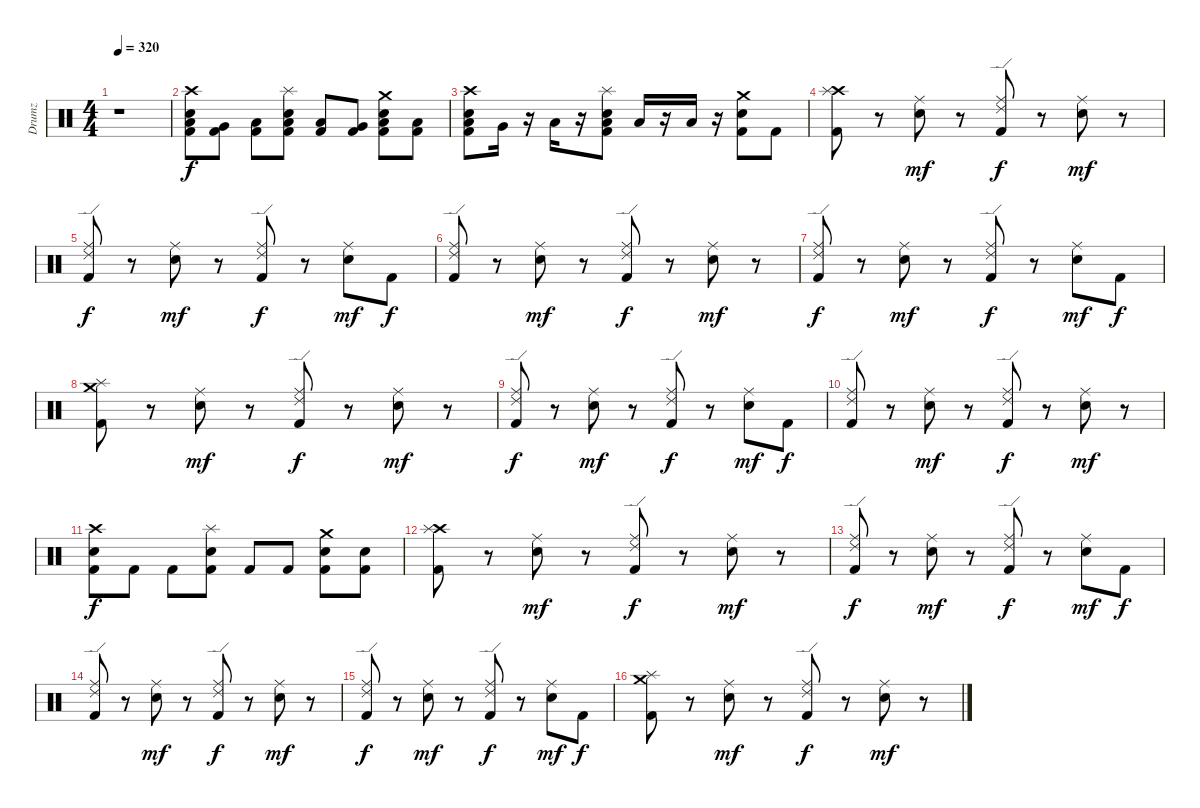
\track ("Drumz" "Drumz") {instrument percussion}
\staff {score}
\articulation defaults
\ts (4 4)
\tempo 320
\clef neutral
\ks c
r.1{dy f} |
("Crash high (hit)" "Kick (hit) 2" "Snare (hit) 2" "Low Tom (hit)").8 ("Very Low Tom (hit)" "Kick (hit) 2").8 ("Low Floor Tom (hit)" "Kick (hit) 2").8 ("Splash (hit)" "Kick (hit) 2" "Snare (hit) 2" "Low Floor Tom (hit)").8 ("Low Tom (hit)" "Kick (hit) 2").8 ("Very Low Tom (hit)" "Kick (hit) 2").8 ("Crash medium (hit)" "Kick (hit) 2" "Snare (hit) 2" "Low Floor Tom (hit)").8 ("Low Floor Tom (hit)" "Kick (hit) 2").8 |
("Low Tom (hit)" "Kick (hit) 2" "Snare (hit) 2" "Crash high (hit)").8 "Very Low Tom (hit)".16 r.16 "Low Floor Tom (hit)".16 r.16 ("Low Floor Tom (hit)" "Kick (hit) 2" "Snare (hit) 2" "Splash (hit)").8 "Low Floor Tom (hit)".16 r.16 "Low Floor Tom (hit)".16 r.16 ("Kick (hit) 2" "Snare (hit) 2" "Crash medium (hit)").8 "Kick (hit) 2".8 |
("Kick (hit) 2" "Crash high (hit)" "Splash (hit)").8 r.8 ("Snare (hit) 2" "Ride (middle)").8{dy mf} r.8 ("Ride (edge) 2" "Kick (hit) 2" "Ride (middle)").8{dy f} r.8 ("Snare (hit) 2" "Ride (middle)").8{dy mf} r.8 |
("Kick (hit) 2" "Ride (middle)" "Ride (edge) 2").8{dy f} r.8 ("Snare (hit) 2" "Ride (middle)").8{dy mf} r.8 ("Kick (hit) 2" "Ride (middle)" "Ride (edge) 2").8{dy f} r.8 ("Snare (hit) 2" "Ride (middle)").8{dy mf} "Kick (hit) 2".8{dy f} |
("Kick (hit) 2" "Ride (middle)" "Ride (edge) 2").8 r.8 ("Snare (hit) 2" "Ride (middle)").8{dy mf} r.8 ("Ride (edge) 2" "Kick (hit) 2" "Ride (middle)").8{dy f} r.8 ("Snare (hit) 2" "Ride (middle)").8{dy mf} r.8 |
("Kick (hit) 2" "Ride (middle)" "Ride (edge) 2").8{dy f} r.8 ("Snare (hit) 2" "Ride (middle)").8{dy mf} r.8 ("Kick (hit) 2" "Ride (middle)" "Ride (edge) 2").8{dy f} r.8 ("Snare (hit) 2" "Ride (middle)").8{dy mf} "Kick (hit) 2".8{dy f} |
("Crash medium (hit)" "Kick (hit) 2" "Splash (hit)").8 r.8 ("Snare (hit) 2" "Ride (middle)").8{dy mf} r.8 ("Ride (edge) 2" "Kick (hit) 2" "Ride (middle)").8{dy f} r.8 ("Snare (hit) 2" "Ride (middle)").8{dy mf} r.8 |
("Kick (hit) 2" "Ride (middle)" "Ride (edge) 2").8{dy f} r.8 ("Snare (hit) 2" "Ride (middle)").8{dy mf} r.8 ("Kick (hit) 2" "Ride (middle)" "Ride (edge) 2").8{dy f} r.8 ("Snare (hit) 2" "Ride (middle)").8{dy mf} "Kick (hit) 2".8{dy f} |
("Kick (hit) 2" "Ride (middle)" "Ride (edge) 2").8 r.8 ("Snare (hit) 2" "Ride (middle)").8{dy mf} r.8 ("Kick (hit) 2" "Ride (middle)" "Ride (edge) 2").8{dy f} r.8 ("Snare (hit) 2" "Ride (middle)").8{dy mf} r.8 |
("Snare (hit) 2" "Kick (hit) 2" "Crash high (hit)").8{dy f} "Kick (hit) 2".8 "Kick (hit) 2".8 ("Kick (hit) 2" "Snare (hit) 2" "Splash (hit)").8 "Kick (hit) 2".8 "Kick (hit) 2".8 ("Snare (hit) 2" "Kick (hit) 2" "Crash medium (hit)").8 ("Snare (hit) 2" "Kick (hit) 2").8 |
("Kick (hit) 2" "Crash high (hit)" "Splash (hit)").8 r.8 ("Snare (hit) 2" "Ride (middle)").8{dy mf} r.8 ("Ride (edge) 2" "Kick (hit) 2" "Ride (middle)").8{dy f} r.8 ("Snare (hit) 2" "Ride (middle)").8{dy mf} r.8 |
("Kick (hit) 2" "Ride (middle)" "Ride (edge) 2").8{dy f} r.8 ("Snare (hit) 2" "Ride (middle)").8{dy mf} r.8 ("Kick (hit) 2" "Ride (middle)" "Ride (edge) 2").8{dy f} r.8 ("Snare (hit) 2" "Ride (middle)").8{dy mf} "Kick (hit) 2".8{dy f} |
("Kick (hit) 2" "Ride (middle)" "Ride (edge) 2").8 r.8 ("Snare (hit) 2" "Ride (middle)").8{dy mf} r.8 ("Ride (edge) 2" "Kick (hit) 2" "Ride (middle)").8{dy f} r.8 ("Snare (hit) 2" "Ride (middle)").8{dy mf} r.8 |
("Kick (hit) 2" "Ride (middle)" "Ride (edge) 2").8{dy f} r.8 ("Snare (hit) 2" "Ride (middle)").8{dy mf} r.8 ("Kick (hit) 2" "Ride (middle)" "Ride (edge) 2").8{dy f} r.8 ("Snare (hit) 2" "Ride (middle)").8{dy mf} "Kick (hit) 2".8{dy f} |
("Crash medium (hit)" "Kick (hit) 2" "Splash (hit)").8 r.8 ("Snare (hit) 2" "Ride (middle)").8{dy mf} r.8 ("Ride (edge) 2" "Kick (hit) 2" "Ride (middle)").8{dy f} r.8 ("Snare (hit) 2" "Ride (middle)").8{dy mf} r.8
